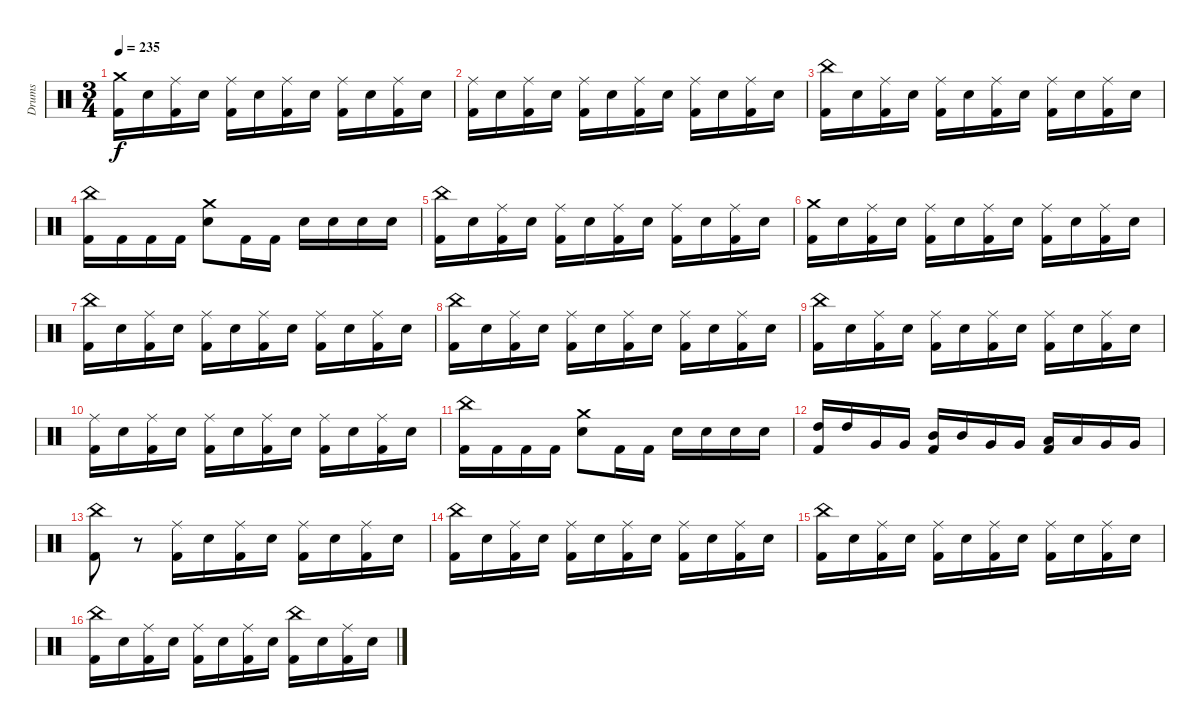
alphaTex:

\track ("Drums" "Drums") {instrument percussion}
\staff {score}
\articulation defaults
\ts (3 4)
\tempo 235
\clef neutral
\ks c
("Crash medium (hit)" "Kick (hit) 2").16{dy f} "Electric Snare (hit)".16 ("Ride (middle)" "Kick (hit) 2").16 "Electric Snare (hit)".16 ("Ride (middle)" "Kick (hit) 2").16 "Electric Snare (hit)".16 ("Ride (middle)" "Kick (hit) 2").16 "Electric Snare (hit)".16 ("Ride (middle)" "Kick (hit) 2").16 "Electric Snare (hit)".16 ("Ride (middle)" "Kick (hit) 2").16 "Electric Snare (hit)".16 |
("Ride (middle)" "Kick (hit) 2").16 "Electric Snare (hit)".16 ("Ride (middle)" "Kick (hit) 2").16 "Electric Snare (hit)".16 ("Ride (middle)" "Kick (hit) 2").16 "Electric Snare (hit)".16 ("Ride (middle)" "Kick (hit) 2").16 "Electric Snare (hit)".16 ("Ride (middle)" "Kick (hit) 2").16 "Electric Snare (hit)".16 ("Ride (middle)" "Kick (hit) 2").16 "Electric Snare (hit)".16 |
("China (hit)" "Kick (hit) 2").16 "Electric Snare (hit)".16 ("Ride (middle)" "Kick (hit) 2").16 "Electric Snare (hit)".16 ("Ride (middle)" "Kick (hit) 2").16 "Electric Snare (hit)".16 ("Ride (middle)" "Kick (hit) 2").16 "Electric Snare (hit)".16 ("Ride (middle)" "Kick (hit) 2").16 "Electric Snare (hit)".16 ("Ride (middle)" "Kick (hit) 2").16 "Electric Snare (hit)".16 |
("China (hit)" "Kick (hit) 2").16 "Kick (hit) 2".16 "Kick (hit) 2".16 "Kick (hit) 2".16 ("Crash medium (hit)" "Electric Snare (hit)").8 "Kick (hit) 2".16 "Kick (hit) 2".16 "Electric Snare (hit)".16 "Electric Snare (hit)".16 "Electric Snare (hit)".16 "Electric Snare (hit)".16 |
("China (hit)" "Kick (hit) 2").16 "Electric Snare (hit)".16 ("Ride (middle)" "Kick (hit) 2").16 "Electric Snare (hit)".16 ("Ride (middle)" "Kick (hit) 2").16 "Electric Snare (hit)".16 ("Ride (middle)" "Kick (hit) 2").16 "Electric Snare (hit)".16 ("Ride (middle)" "Kick (hit) 2").16 "Electric Snare (hit)".16 ("Ride (middle)" "Kick (hit) 2").16 "Electric Snare (hit)".16 |
("Crash medium (hit)" "Kick (hit) 2").16 "Electric Snare (hit)".16 ("Ride (middle)" "Kick (hit) 2").16 "Electric Snare (hit)".16 ("Ride (middle)" "Kick (hit) 2").16 "Electric Snare (hit)".16 ("Ride (middle)" "Kick (hit) 2").16 "Electric Snare (hit)".16 ("Ride (middle)" "Kick (hit) 2").16 "Electric Snare (hit)".16 ("Ride (middle)" "Kick (hit) 2").16 "Electric Snare (hit)".16 |
("China (hit)" "Kick (hit) 2").16 "Electric Snare (hit)".16 ("Ride (middle)" "Kick (hit) 2").16 "Electric Snare (hit)".16 ("Ride (middle)" "Kick (hit) 2").16 "Electric Snare (hit)".16 ("Ride (middle)" "Kick (hit) 2").16 "Electric Snare (hit)".16 ("Ride (middle)" "Kick (hit) 2").16 "Electric Snare (hit)".16 ("Ride (middle)" "Kick (hit) 2").16 "Electric Snare (hit)".16 |
("China (hit)" "Kick (hit) 2").16 "Electric Snare (hit)".16 ("Ride (middle)" "Kick (hit) 2").16 "Electric Snare (hit)".16 ("Ride (middle)" "Kick (hit) 2").16 "Electric Snare (hit)".16 ("Ride (middle)" "Kick (hit) 2").16 "Electric Snare (hit)".16 ("Ride (middle)" "Kick (hit) 2").16 "Electric Snare (hit)".16 ("Ride (middle)" "Kick (hit) 2").16 "Electric Snare (hit)".16 |
("China (hit)" "Kick (hit) 2").16 "Electric Snare (hit)".16 ("Ride (middle)" "Kick (hit) 2").16 "Electric Snare (hit)".16 ("Ride (middle)" "Kick (hit) 2").16 "Electric Snare (hit)".16 ("Ride (middle)" "Kick (hit) 2").16 "Electric Snare (hit)".16 ("Ride (middle)" "Kick (hit) 2").16 "Electric Snare (hit)".16 ("Ride (middle)" "Kick (hit) 2").16 "Electric Snare (hit)".16 |
("Ride (middle)" "Kick (hit) 2").16 "Electric Snare (hit)".16 ("Ride (middle)" "Kick (hit) 2").16 "Electric Snare (hit)".16 ("Ride (middle)" "Kick (hit) 2").16 "Electric Snare (hit)".16 ("Ride (middle)" "Kick (hit) 2").16 "Electric Snare (hit)".16 ("Ride (middle)" "Kick (hit) 2").16 "Electric Snare (hit)".16 ("Ride (middle)" "Kick (hit) 2").16 "Electric Snare (hit)".16 |
("China (hit)" "Kick (hit) 2").16 "Kick (hit) 2".16 "Kick (hit) 2".16 "Kick (hit) 2".16 ("Crash medium (hit)" "Electric Snare (hit)").8 "Kick (hit) 2".16 "Kick (hit) 2".16 "Electric Snare (hit)".16 "Electric Snare (hit)".16 "Electric Snare (hit)".16 "Electric Snare (hit)".16 |
("High Tom (hit)" "Kick (hit) 2").16 "High Tom (hit)".16 "Very Low Tom (hit)".16 "Very Low Tom (hit)".16 ("Mid Tom (hit)" "Kick (hit) 2").16 "Mid Tom (hit)".16 "Very Low Tom (hit)".16 "Very Low Tom (hit)".16 ("Low Tom (hit)" "Kick (hit) 2").16 "Low Tom (hit)".16 "Very Low Tom (hit)".16 "Very Low Tom (hit)".16 |
("China (hit)" "Kick (hit) 2").8 r.8 ("Ride (middle)" "Kick (hit) 2").16 "Electric Snare (hit)".16 ("Ride (middle)" "Kick (hit) 2").16 "Electric Snare (hit)".16 ("Ride (middle)" "Kick (hit) 2").16 "Electric Snare (hit)".16 ("Ride (middle)" "Kick (hit) 2").16 "Electric Snare (hit)".16 |
("China (hit)" "Kick (hit) 2").16 "Electric Snare (hit)".16 ("Ride (middle)" "Kick (hit) 2").16 "Electric Snare (hit)".16 ("Ride (middle)" "Kick (hit) 2").16 "Electric Snare (hit)".16 ("Ride (middle)" "Kick (hit) 2").16 "Electric Snare (hit)".16 ("Ride (middle)" "Kick (hit) 2").16 "Electric Snare (hit)".16 ("Ride (middle)" "Kick (hit) 2").16 "Electric Snare (hit)".16 |
("China (hit)" "Kick (hit) 2").16 "Electric Snare (hit)".16 ("Ride (middle)" "Kick (hit) 2").16 "Electric Snare (hit)".16 ("Ride (middle)" "Kick (hit) 2").16 "Electric Snare (hit)".16 ("Ride (middle)" "Kick (hit) 2").16 "Electric Snare (hit)".16 ("Ride (middle)" "Kick (hit) 2").16 "Electric Snare (hit)".16 ("Ride (middle)" "Kick (hit) 2").16 "Electric Snare (hit)".16 |
("China (hit)" "Kick (hit) 2").16 "Electric Snare (hit)".16 ("Ride (middle)" "Kick (hit) 2").16 "Electric Snare (hit)".16 ("Ride (middle)" "Kick (hit) 2").16 "Electric Snare (hit)".16 ("Ride (middle)" "Kick (hit) 2").16 "Electric Snare (hit)".16 ("China (hit)" "Kick (hit) 2").16 "Electric Snare (hit)".16 ("Ride (middle)" "Kick (hit) 2").16 "Electric Snare (hit)".16
